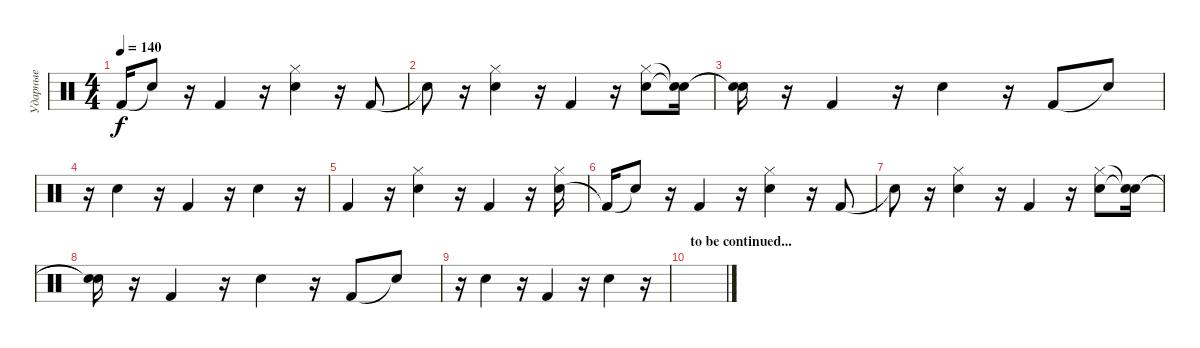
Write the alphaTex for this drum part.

\track ("Ударные" "Ударные") {instrument percussion}
\staff {score}
\articulation defaults
\ts (4 4)
\tempo 140
\clef neutral
\ks c "Kick (hit) 2"{t}.16{dy f} "Snare (hit)"{t}.8
r.16 "Kick (hit) 2".4 r.16 ("Electric Snare (hit)" "Hi-Hat (closed)").4 r.16 "Kick (hit) 2".8 |
"Snare (hit)"{t}.8 r.16 ("Electric Snare (hit)" "Hi-Hat (closed)").4 r.16 "Kick (hit) 2".4 r.16 ("Electric Snare (hit)" "Hi-Hat (closed)").8 ("Snare (hit)"{t} "Snare (hit)"{t}).16 |
("Snare (hit)"{t} "Snare (hit)"{t}).16 r.16 "Kick (hit) 2".4 r.16 "Electric Snare (hit)".4 r.16 "Kick (hit) 2".8 "Snare (hit)"{t}.8 |
r.16 "Electric Snare (hit)".4 r.16 "Kick (hit) 2".4 r.16 "Electric Snare (hit)".4 r.16 |
"Kick (hit) 2".4 r.16 ("Electric Snare (hit)" "Hi-Hat (closed)").4 r.16 "Kick (hit) 2".4 r.16 ("Electric Snare (hit)" "Hi-Hat (closed)").16 |
"Kick (hit) 2"{t}.16 "Snare (hit)"{t}.8 r.16 "Kick (hit) 2".4 r.16 ("Electric Snare (hit)" "Hi-Hat (closed)").4 r.16 "Kick (hit) 2".8 |
"Snare (hit)"{t}.8 r.16 ("Electric Snare (hit)" "Hi-Hat (closed)").4 r.16 "Kick (hit) 2".4 r.16 ("Electric Snare (hit)" "Hi-Hat (closed)").8 ("Snare (hit)"{t} "Snare (hit)"{t}).16 |
("Snare (hit)"{t} "Snare (hit)"{t}).16 r.16 "Kick (hit) 2".4 r.16 "Electric Snare (hit)".4 r.16 "Kick (hit) 2".8 "Snare (hit)"{t}.8 |
r.16 "Electric Snare (hit)".4 r.16 "Kick (hit) 2".4 r.16 "Electric Snare (hit)".4 r.16 |
\section ("" "to be continued...")
